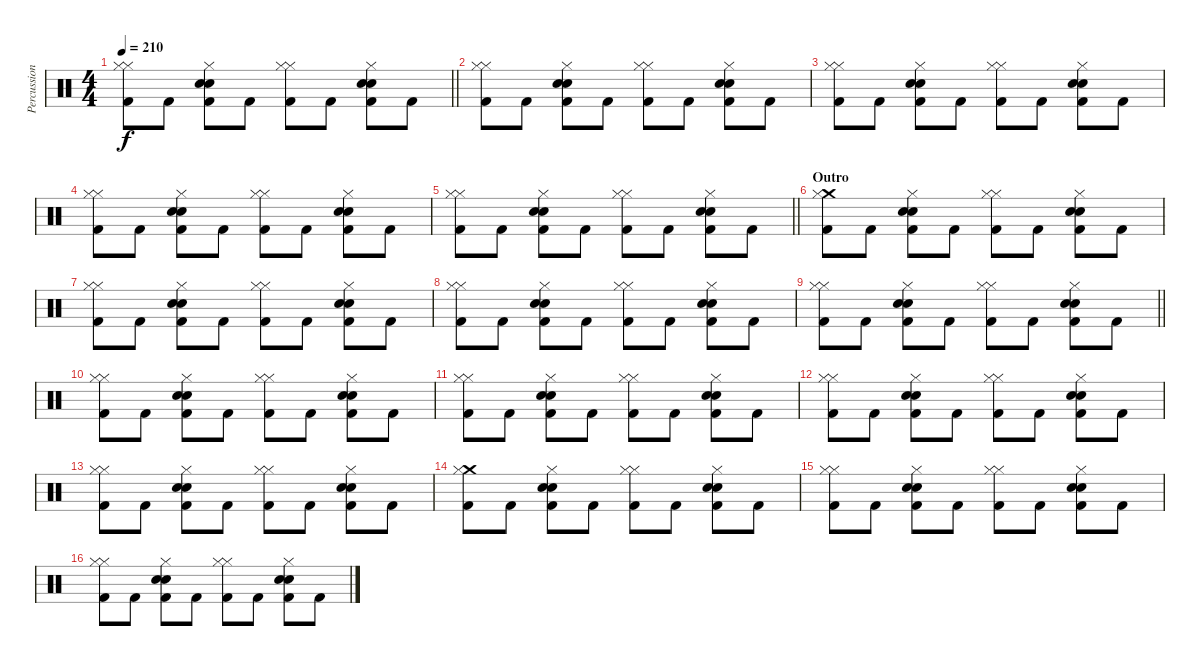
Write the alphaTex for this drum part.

\track ("Percussion" "Percussion") {instrument percussion}
\staff {score}
\articulation defaults
\ts (4 4)
\tempo 210
\clef neutral
\barLineRight lightlight
\ks c
("Hi-Hat (closed)" "Hi-Hat (closed)" "Kick (hit) 2").8{dy f} "Kick (hit) 2".8 ("Hi-Hat (closed)" "Snare (hit) 2" "Electric Snare (hit)" "Kick (hit) 2").8 "Kick (hit) 2".8 ("Hi-Hat (closed)" "Hi-Hat (closed)" "Kick (hit) 2").8 "Kick (hit) 2".8 ("Hi-Hat (closed)" "Snare (hit) 2" "Electric Snare (hit)" "Kick (hit) 2").8 "Kick (hit) 2".8 |
("Hi-Hat (closed)" "Hi-Hat (closed)" "Kick (hit) 2").8 "Kick (hit) 2".8 ("Hi-Hat (closed)" "Snare (hit) 2" "Electric Snare (hit)" "Kick (hit) 2").8 "Kick (hit) 2".8 ("Hi-Hat (closed)" "Hi-Hat (closed)" "Kick (hit) 2").8 "Kick (hit) 2".8 ("Hi-Hat (closed)" "Snare (hit) 2" "Electric Snare (hit)" "Kick (hit) 2").8 "Kick (hit) 2".8 |
("Hi-Hat (closed)" "Hi-Hat (closed)" "Kick (hit) 2").8 "Kick (hit) 2".8 ("Hi-Hat (closed)" "Snare (hit) 2" "Electric Snare (hit)" "Kick (hit) 2").8 "Kick (hit) 2".8 ("Hi-Hat (closed)" "Hi-Hat (closed)" "Kick (hit) 2").8 "Kick (hit) 2".8 ("Hi-Hat (closed)" "Snare (hit) 2" "Electric Snare (hit)" "Kick (hit) 2").8 "Kick (hit) 2".8 |
("Hi-Hat (closed)" "Hi-Hat (closed)" "Kick (hit) 2").8 "Kick (hit) 2".8 ("Hi-Hat (closed)" "Snare (hit) 2" "Electric Snare (hit)" "Kick (hit) 2").8 "Kick (hit) 2".8 ("Hi-Hat (closed)" "Hi-Hat (closed)" "Kick (hit) 2").8 "Kick (hit) 2".8 ("Hi-Hat (closed)" "Snare (hit) 2" "Electric Snare (hit)" "Kick (hit) 2").8 "Kick (hit) 2".8 |
\barLineRight lightlight
("Hi-Hat (closed)" "Hi-Hat (closed)" "Kick (hit) 2").8 "Kick (hit) 2".8 ("Hi-Hat (closed)" "Snare (hit) 2" "Electric Snare (hit)" "Kick (hit) 2").8 "Kick (hit) 2".8 ("Hi-Hat (closed)" "Hi-Hat (closed)" "Kick (hit) 2").8 "Kick (hit) 2".8 ("Hi-Hat (closed)" "Snare (hit) 2" "Electric Snare (hit)" "Kick (hit) 2").8 "Kick (hit) 2".8 |
\section ("" "Outro")
("Crash medium (hit)" "Hi-Hat (closed)" "Kick (hit) 2").8 "Kick (hit) 2".8 ("Hi-Hat (closed)" "Snare (hit) 2" "Electric Snare (hit)" "Kick (hit) 2").8 "Kick (hit) 2".8 ("Hi-Hat (closed)" "Hi-Hat (closed)" "Kick (hit) 2").8 "Kick (hit) 2".8 ("Hi-Hat (closed)" "Snare (hit) 2" "Electric Snare (hit)" "Kick (hit) 2").8 "Kick (hit) 2".8 |
("Hi-Hat (closed)" "Hi-Hat (closed)" "Kick (hit) 2").8 "Kick (hit) 2".8 ("Hi-Hat (closed)" "Snare (hit) 2" "Electric Snare (hit)" "Kick (hit) 2").8 "Kick (hit) 2".8 ("Hi-Hat (closed)" "Hi-Hat (closed)" "Kick (hit) 2").8 "Kick (hit) 2".8 ("Hi-Hat (closed)" "Snare (hit) 2" "Electric Snare (hit)" "Kick (hit) 2").8 "Kick (hit) 2".8 |
("Hi-Hat (closed)" "Hi-Hat (closed)" "Kick (hit) 2").8 "Kick (hit) 2".8 ("Hi-Hat (closed)" "Snare (hit) 2" "Electric Snare (hit)" "Kick (hit) 2").8 "Kick (hit) 2".8 ("Hi-Hat (closed)" "Hi-Hat (closed)" "Kick (hit) 2").8 "Kick (hit) 2".8 ("Hi-Hat (closed)" "Snare (hit) 2" "Electric Snare (hit)" "Kick (hit) 2").8 "Kick (hit) 2".8 |
\barLineRight lightlight
("Hi-Hat (closed)" "Hi-Hat (closed)" "Kick (hit) 2").8 "Kick (hit) 2".8 ("Hi-Hat (closed)" "Snare (hit) 2" "Electric Snare (hit)" "Kick (hit) 2").8 "Kick (hit) 2".8 ("Hi-Hat (closed)" "Hi-Hat (closed)" "Kick (hit) 2").8 "Kick (hit) 2".8 ("Hi-Hat (closed)" "Snare (hit) 2" "Electric Snare (hit)" "Kick (hit) 2").8 "Kick (hit) 2".8 |
("Hi-Hat (closed)" "Hi-Hat (closed)" "Kick (hit) 2").8 "Kick (hit) 2".8 ("Hi-Hat (closed)" "Snare (hit) 2" "Electric Snare (hit)" "Kick (hit) 2").8 "Kick (hit) 2".8 ("Hi-Hat (closed)" "Hi-Hat (closed)" "Kick (hit) 2").8 "Kick (hit) 2".8 ("Hi-Hat (closed)" "Snare (hit) 2" "Electric Snare (hit)" "Kick (hit) 2").8 "Kick (hit) 2".8 |
("Hi-Hat (closed)" "Hi-Hat (closed)" "Kick (hit) 2").8 "Kick (hit) 2".8 ("Hi-Hat (closed)" "Snare (hit) 2" "Electric Snare (hit)" "Kick (hit) 2").8 "Kick (hit) 2".8 ("Hi-Hat (closed)" "Hi-Hat (closed)" "Kick (hit) 2").8 "Kick (hit) 2".8 ("Hi-Hat (closed)" "Snare (hit) 2" "Electric Snare (hit)" "Kick (hit) 2").8 "Kick (hit) 2".8 |
("Hi-Hat (closed)" "Hi-Hat (closed)" "Kick (hit) 2").8 "Kick (hit) 2".8 ("Hi-Hat (closed)" "Snare (hit) 2" "Electric Snare (hit)" "Kick (hit) 2").8 "Kick (hit) 2".8 ("Hi-Hat (closed)" "Hi-Hat (closed)" "Kick (hit) 2").8 "Kick (hit) 2".8 ("Hi-Hat (closed)" "Snare (hit) 2" "Electric Snare (hit)" "Kick (hit) 2").8 "Kick (hit) 2".8 |
("Hi-Hat (closed)" "Hi-Hat (closed)" "Kick (hit) 2").8 "Kick (hit) 2".8 ("Hi-Hat (closed)" "Snare (hit) 2" "Electric Snare (hit)" "Kick (hit) 2").8 "Kick (hit) 2".8 ("Hi-Hat (closed)" "Hi-Hat (closed)" "Kick (hit) 2").8 "Kick (hit) 2".8 ("Hi-Hat (closed)" "Snare (hit) 2" "Electric Snare (hit)" "Kick (hit) 2").8 "Kick (hit) 2".8 |
("Crash medium (hit)" "Hi-Hat (closed)" "Kick (hit) 2").8 "Kick (hit) 2".8 ("Hi-Hat (closed)" "Snare (hit) 2" "Electric Snare (hit)" "Kick (hit) 2").8 "Kick (hit) 2".8 ("Hi-Hat (closed)" "Hi-Hat (closed)" "Kick (hit) 2").8 "Kick (hit) 2".8 ("Hi-Hat (closed)" "Snare (hit) 2" "Electric Snare (hit)" "Kick (hit) 2").8 "Kick (hit) 2".8 |
("Hi-Hat (closed)" "Hi-Hat (closed)" "Kick (hit) 2").8 "Kick (hit) 2".8 ("Hi-Hat (closed)" "Snare (hit) 2" "Electric Snare (hit)" "Kick (hit) 2").8 "Kick (hit) 2".8 ("Hi-Hat (closed)" "Hi-Hat (closed)" "Kick (hit) 2").8 "Kick (hit) 2".8 ("Hi-Hat (closed)" "Snare (hit) 2" "Electric Snare (hit)" "Kick (hit) 2").8 "Kick (hit) 2".8 |
("Hi-Hat (closed)" "Hi-Hat (closed)" "Kick (hit) 2").8 "Kick (hit) 2".8 ("Hi-Hat (closed)" "Snare (hit) 2" "Electric Snare (hit)" "Kick (hit) 2").8 "Kick (hit) 2".8 ("Hi-Hat (closed)" "Hi-Hat (closed)" "Kick (hit) 2").8 "Kick (hit) 2".8 ("Hi-Hat (closed)" "Snare (hit) 2" "Electric Snare (hit)" "Kick (hit) 2").8 "Kick (hit) 2".8
